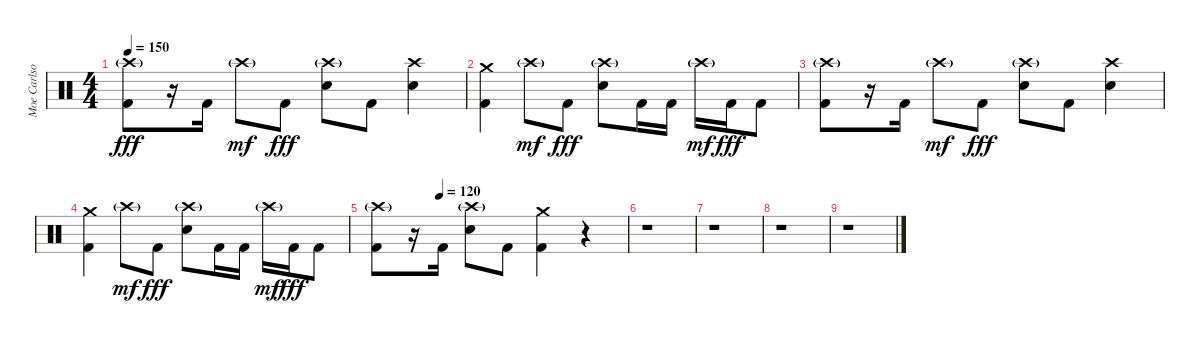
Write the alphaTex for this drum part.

\track ("Moe Carlson" "Moe Carlso") {instrument percussion}
\staff {score}
\articulation defaults
\ts (4 4)
\tempo 150
\clef neutral
\ks c
("Crash high (hit)"{g} "Kick (hit) 2").8{dy fff} r.16 "Kick (hit) 2".16 "Crash high (hit)"{g}.8{dy mf} "Kick (hit) 2".8{dy fff} ("Crash high (hit)"{g} "Electric Snare (hit)").8 "Kick (hit) 2".8 ("Crash high (hit)" "Electric Snare (hit)").4 |
("Crash medium (hit)" "Kick (hit) 2").4 "Crash high (hit)"{g}.8{dy mf} "Kick (hit) 2".8{dy fff} ("Crash high (hit)"{g} "Electric Snare (hit)").8 "Kick (hit) 2".16 "Kick (hit) 2".16 "Crash high (hit)"{g}.16{dy mf} "Kick (hit) 2".16{dy fff} "Kick (hit) 2".8 |
("Crash high (hit)"{g} "Kick (hit) 2").8 r.16 "Kick (hit) 2".16 "Crash high (hit)"{g}.8{dy mf} "Kick (hit) 2".8{dy fff} ("Crash high (hit)"{g} "Electric Snare (hit)").8 "Kick (hit) 2".8 ("Crash high (hit)" "Electric Snare (hit)").4 |
("Crash medium (hit)" "Kick (hit) 2").4 "Crash high (hit)"{g}.8{dy mf} "Kick (hit) 2".8{dy fff} ("Crash high (hit)"{g} "Electric Snare (hit)").8 "Kick (hit) 2".16 "Kick (hit) 2".16 "Crash high (hit)"{g}.16{dy mf} "Kick (hit) 2".16{dy fff} "Kick (hit) 2".8 |
\tempo (120 0.25)
("Crash high (hit)"{g} "Kick (hit) 2").8 r.16 "Kick (hit) 2".16 ("Crash high (hit)"{g} "Electric Snare (hit)").8 "Kick (hit) 2".8 ("Crash medium (hit)" "Kick (hit) 2").4 r.4 |
r.1 |
r.1 |
r.1 |
r.1
